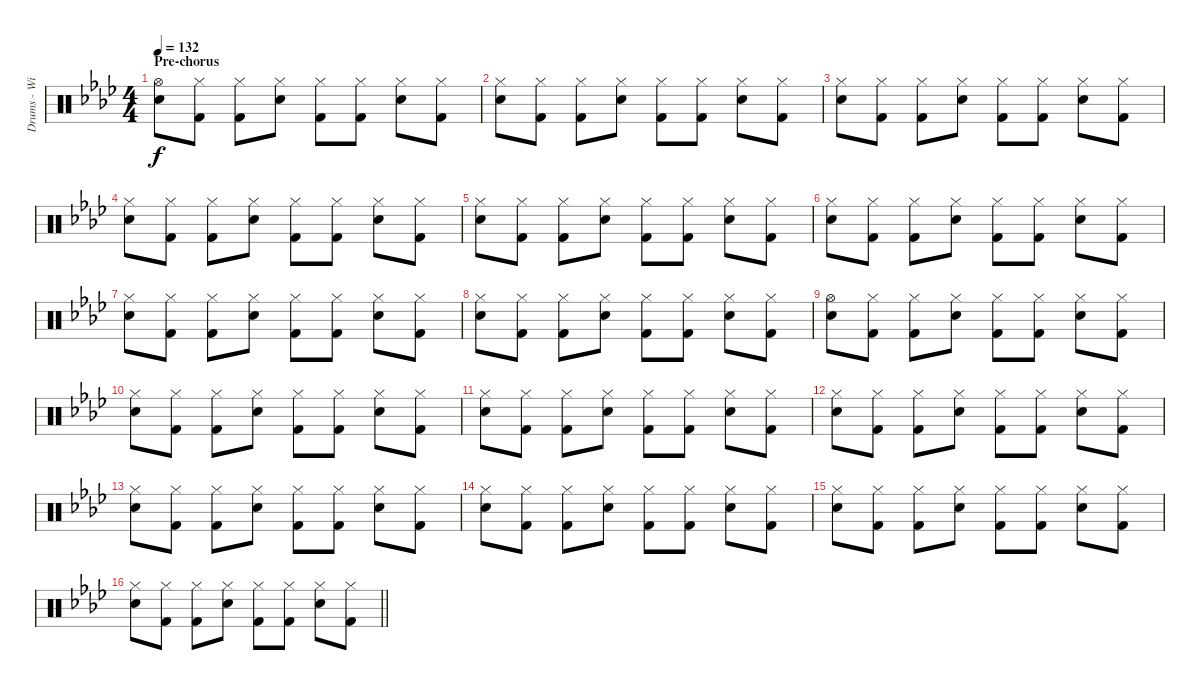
\track ("Drums - Will" "Drums - Wi") {instrument percussion}
\staff {score}
\articulation defaults
\ts (4 4)
\section ("" "Pre-chorus")
\tempo 132
\clef neutral
\ks ab
("Hi-Hat (open)" "Electric Snare (hit)").8{dy f} ("Hi-Hat (closed)" "Kick (hit) 2").8 ("Hi-Hat (closed)" "Kick (hit) 2").8 ("Hi-Hat (closed)" "Electric Snare (hit)").8 ("Hi-Hat (closed)" "Kick (hit) 2").8 ("Hi-Hat (closed)" "Kick (hit) 2").8 ("Hi-Hat (closed)" "Electric Snare (hit)").8 ("Hi-Hat (closed)" "Kick (hit) 2").8 |
("Hi-Hat (closed)" "Electric Snare (hit)").8 ("Hi-Hat (closed)" "Kick (hit) 2").8 ("Hi-Hat (closed)" "Kick (hit) 2").8 ("Hi-Hat (closed)" "Electric Snare (hit)").8 ("Hi-Hat (closed)" "Kick (hit) 2").8 ("Hi-Hat (closed)" "Kick (hit) 2").8 ("Hi-Hat (closed)" "Electric Snare (hit)").8 ("Hi-Hat (closed)" "Kick (hit) 2").8 |
("Hi-Hat (closed)" "Electric Snare (hit)").8 ("Hi-Hat (closed)" "Kick (hit) 2").8 ("Hi-Hat (closed)" "Kick (hit) 2").8 ("Hi-Hat (closed)" "Electric Snare (hit)").8 ("Hi-Hat (closed)" "Kick (hit) 2").8 ("Hi-Hat (closed)" "Kick (hit) 2").8 ("Hi-Hat (closed)" "Electric Snare (hit)").8 ("Hi-Hat (closed)" "Kick (hit) 2").8 |
("Hi-Hat (closed)" "Electric Snare (hit)").8 ("Hi-Hat (closed)" "Kick (hit) 2").8 ("Hi-Hat (closed)" "Kick (hit) 2").8 ("Hi-Hat (closed)" "Electric Snare (hit)").8 ("Hi-Hat (closed)" "Kick (hit) 2").8 ("Hi-Hat (closed)" "Kick (hit) 2").8 ("Hi-Hat (closed)" "Electric Snare (hit)").8 ("Hi-Hat (closed)" "Kick (hit) 2").8 |
("Hi-Hat (closed)" "Electric Snare (hit)").8 ("Hi-Hat (closed)" "Kick (hit) 2").8 ("Hi-Hat (closed)" "Kick (hit) 2").8 ("Hi-Hat (closed)" "Electric Snare (hit)").8 ("Hi-Hat (closed)" "Kick (hit) 2").8 ("Hi-Hat (closed)" "Kick (hit) 2").8 ("Hi-Hat (closed)" "Electric Snare (hit)").8 ("Hi-Hat (closed)" "Kick (hit) 2").8 |
("Hi-Hat (closed)" "Electric Snare (hit)").8 ("Hi-Hat (closed)" "Kick (hit) 2").8 ("Hi-Hat (closed)" "Kick (hit) 2").8 ("Hi-Hat (closed)" "Electric Snare (hit)").8 ("Hi-Hat (closed)" "Kick (hit) 2").8 ("Hi-Hat (closed)" "Kick (hit) 2").8 ("Hi-Hat (closed)" "Electric Snare (hit)").8 ("Hi-Hat (closed)" "Kick (hit) 2").8 |
("Hi-Hat (closed)" "Electric Snare (hit)").8 ("Hi-Hat (closed)" "Kick (hit) 2").8 ("Hi-Hat (closed)" "Kick (hit) 2").8 ("Hi-Hat (closed)" "Electric Snare (hit)").8 ("Hi-Hat (closed)" "Kick (hit) 2").8 ("Hi-Hat (closed)" "Kick (hit) 2").8 ("Hi-Hat (closed)" "Electric Snare (hit)").8 ("Hi-Hat (closed)" "Kick (hit) 2").8 |
("Hi-Hat (closed)" "Electric Snare (hit)").8 ("Hi-Hat (closed)" "Kick (hit) 2").8 ("Hi-Hat (closed)" "Kick (hit) 2").8 ("Hi-Hat (closed)" "Electric Snare (hit)").8 ("Hi-Hat (closed)" "Kick (hit) 2").8 ("Hi-Hat (closed)" "Kick (hit) 2").8 ("Hi-Hat (closed)" "Electric Snare (hit)").8 ("Hi-Hat (closed)" "Kick (hit) 2").8 |
("Hi-Hat (open)" "Electric Snare (hit)").8 ("Hi-Hat (closed)" "Kick (hit) 2").8 ("Hi-Hat (closed)" "Kick (hit) 2").8 ("Hi-Hat (closed)" "Electric Snare (hit)").8 ("Hi-Hat (closed)" "Kick (hit) 2").8 ("Hi-Hat (closed)" "Kick (hit) 2").8 ("Hi-Hat (closed)" "Electric Snare (hit)").8 ("Hi-Hat (closed)" "Kick (hit) 2").8 |
("Hi-Hat (closed)" "Electric Snare (hit)").8 ("Hi-Hat (closed)" "Kick (hit) 2").8 ("Hi-Hat (closed)" "Kick (hit) 2").8 ("Hi-Hat (closed)" "Electric Snare (hit)").8 ("Hi-Hat (closed)" "Kick (hit) 2").8 ("Hi-Hat (closed)" "Kick (hit) 2").8 ("Hi-Hat (closed)" "Electric Snare (hit)").8 ("Hi-Hat (closed)" "Kick (hit) 2").8 |
("Hi-Hat (closed)" "Electric Snare (hit)").8 ("Hi-Hat (closed)" "Kick (hit) 2").8 ("Hi-Hat (closed)" "Kick (hit) 2").8 ("Hi-Hat (closed)" "Electric Snare (hit)").8 ("Hi-Hat (closed)" "Kick (hit) 2").8 ("Hi-Hat (closed)" "Kick (hit) 2").8 ("Hi-Hat (closed)" "Electric Snare (hit)").8 ("Hi-Hat (closed)" "Kick (hit) 2").8 |
("Hi-Hat (closed)" "Electric Snare (hit)").8 ("Hi-Hat (closed)" "Kick (hit) 2").8 ("Hi-Hat (closed)" "Kick (hit) 2").8 ("Hi-Hat (closed)" "Electric Snare (hit)").8 ("Hi-Hat (closed)" "Kick (hit) 2").8 ("Hi-Hat (closed)" "Kick (hit) 2").8 ("Hi-Hat (closed)" "Electric Snare (hit)").8 ("Hi-Hat (closed)" "Kick (hit) 2").8 |
("Hi-Hat (closed)" "Electric Snare (hit)").8 ("Hi-Hat (closed)" "Kick (hit) 2").8 ("Hi-Hat (closed)" "Kick (hit) 2").8 ("Hi-Hat (closed)" "Electric Snare (hit)").8 ("Hi-Hat (closed)" "Kick (hit) 2").8 ("Hi-Hat (closed)" "Kick (hit) 2").8 ("Hi-Hat (closed)" "Electric Snare (hit)").8 ("Hi-Hat (closed)" "Kick (hit) 2").8 |
("Hi-Hat (closed)" "Electric Snare (hit)").8 ("Hi-Hat (closed)" "Kick (hit) 2").8 ("Hi-Hat (closed)" "Kick (hit) 2").8 ("Hi-Hat (closed)" "Electric Snare (hit)").8 ("Hi-Hat (closed)" "Kick (hit) 2").8 ("Hi-Hat (closed)" "Kick (hit) 2").8 ("Hi-Hat (closed)" "Electric Snare (hit)").8 ("Hi-Hat (closed)" "Kick (hit) 2").8 |
("Hi-Hat (closed)" "Electric Snare (hit)").8 ("Hi-Hat (closed)" "Kick (hit) 2").8 ("Hi-Hat (closed)" "Kick (hit) 2").8 ("Hi-Hat (closed)" "Electric Snare (hit)").8 ("Hi-Hat (closed)" "Kick (hit) 2").8 ("Hi-Hat (closed)" "Kick (hit) 2").8 ("Hi-Hat (closed)" "Electric Snare (hit)").8 ("Hi-Hat (closed)" "Kick (hit) 2").8 |
\barLineRight lightlight
("Hi-Hat (closed)" "Electric Snare (hit)").8 ("Hi-Hat (closed)" "Kick (hit) 2").8 ("Hi-Hat (closed)" "Kick (hit) 2").8 ("Hi-Hat (closed)" "Electric Snare (hit)").8 ("Hi-Hat (closed)" "Kick (hit) 2").8 ("Hi-Hat (closed)" "Kick (hit) 2").8 ("Hi-Hat (closed)" "Electric Snare (hit)").8 ("Hi-Hat (closed)" "Kick (hit) 2").8
